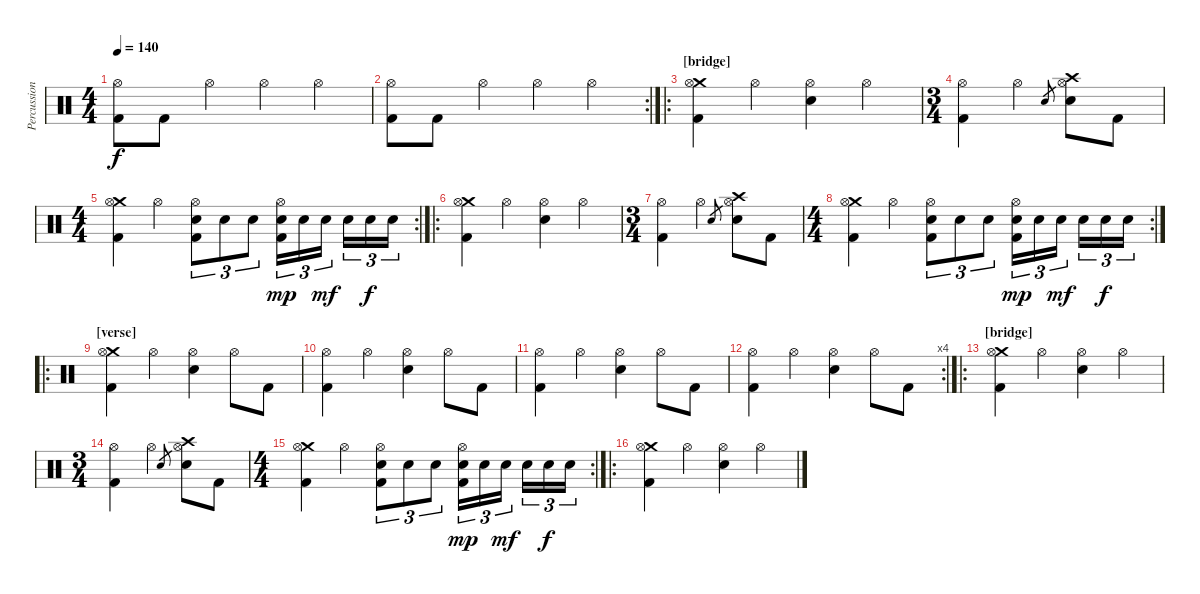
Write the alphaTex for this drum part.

\track ("Percussion" "Percussion") {instrument percussion}
\staff {score}
\articulation defaults
\ts (4 4)
\tempo 140
\clef neutral
\ks c
("Hi-Hat (open)" "Kick (hit) 2").8{dy f} "Kick (hit) 2".8 "Hi-Hat (open)".4 "Hi-Hat (open)".4 "Hi-Hat (open)".4 |
\rc 2
("Hi-Hat (open)" "Kick (hit) 2").8 "Kick (hit) 2".8 "Hi-Hat (open)".4 "Hi-Hat (open)".4 "Hi-Hat (open)".4 |
\ro
\section ("" "[bridge]")
("Crash medium (hit)" "Hi-Hat (open)" "Kick (hit) 2").4 "Hi-Hat (open)".4 ("Hi-Hat (open)" "Electric Snare (hit)").4 "Hi-Hat (open)".4 |
\ts (3 4)
("Hi-Hat (open)" "Kick (hit) 2").4 "Hi-Hat (open)".4 "Electric Snare (hit)".8{gr} ("Crash high (hit)" "Hi-Hat (open)" "Electric Snare (hit)").8 "Kick (hit) 2".8 |
\rc 2
\ts (4 4)
("Crash medium (hit)" "Hi-Hat (open)" "Kick (hit) 2").4 "Hi-Hat (open)".4 ("Hi-Hat (open)" "Electric Snare (hit)" "Kick (hit) 2").8{tu (3 2)} "Electric Snare (hit)".8{tu (3 2)} "Electric Snare (hit)".8{tu (3 2)} ("Hi-Hat (open)" "Electric Snare (hit)" "Kick (hit) 2").16{tu (3 2) dy mp} "Electric Snare (hit)".16{tu (3 2)} "Electric Snare (hit)".16{tu (3 2) dy mf} "Electric Snare (hit)".16{tu (3 2)} "Electric Snare (hit)".16{tu (3 2) dy f} "Electric Snare (hit)".16{tu (3 2)} |
\ro
("Crash medium (hit)" "Hi-Hat (open)" "Kick (hit) 2").4 "Hi-Hat (open)".4 ("Hi-Hat (open)" "Electric Snare (hit)").4 "Hi-Hat (open)".4 |
\ts (3 4)
("Hi-Hat (open)" "Kick (hit) 2").4 "Hi-Hat (open)".4 "Electric Snare (hit)".8{gr} ("Crash high (hit)" "Hi-Hat (open)" "Electric Snare (hit)").8 "Kick (hit) 2".8 |
\rc 2
\ts (4 4)
("Crash medium (hit)" "Hi-Hat (open)" "Kick (hit) 2").4 "Hi-Hat (open)".4 ("Hi-Hat (open)" "Electric Snare (hit)" "Kick (hit) 2").8{tu (3 2)} "Electric Snare (hit)".8{tu (3 2)} "Electric Snare (hit)".8{tu (3 2)} ("Hi-Hat (open)" "Electric Snare (hit)" "Kick (hit) 2").16{tu (3 2) dy mp} "Electric Snare (hit)".16{tu (3 2)} "Electric Snare (hit)".16{tu (3 2) dy mf} "Electric Snare (hit)".16{tu (3 2)} "Electric Snare (hit)".16{tu (3 2) dy f} "Electric Snare (hit)".16{tu (3 2)} |
\ro
\section ("" "[verse]")
("Crash medium (hit)" "Hi-Hat (open)" "Kick (hit) 2").4 "Hi-Hat (open)".4 ("Hi-Hat (open)" "Electric Snare (hit)").4 "Hi-Hat (open)".8 "Kick (hit) 2".8 |
("Hi-Hat (open)" "Kick (hit) 2").4 "Hi-Hat (open)".4 ("Hi-Hat (open)" "Electric Snare (hit)").4 "Hi-Hat (open)".8 "Kick (hit) 2".8 |
("Hi-Hat (open)" "Kick (hit) 2").4 "Hi-Hat (open)".4 ("Hi-Hat (open)" "Electric Snare (hit)").4 "Hi-Hat (open)".8 "Kick (hit) 2".8 |
\rc 4
("Hi-Hat (open)" "Kick (hit) 2").4 "Hi-Hat (open)".4 ("Hi-Hat (open)" "Electric Snare (hit)").4 "Hi-Hat (open)".8 "Kick (hit) 2".8 |
\ro
\section ("" "[bridge]")
("Crash medium (hit)" "Hi-Hat (open)" "Kick (hit) 2").4 "Hi-Hat (open)".4 ("Hi-Hat (open)" "Electric Snare (hit)").4 "Hi-Hat (open)".4 |
\ts (3 4)
("Hi-Hat (open)" "Kick (hit) 2").4 "Hi-Hat (open)".4 "Electric Snare (hit)".8{gr} ("Crash high (hit)" "Hi-Hat (open)" "Electric Snare (hit)").8 "Kick (hit) 2".8 |
\rc 2
\ts (4 4)
("Crash medium (hit)" "Hi-Hat (open)" "Kick (hit) 2").4 "Hi-Hat (open)".4 ("Hi-Hat (open)" "Electric Snare (hit)" "Kick (hit) 2").8{tu (3 2)} "Electric Snare (hit)".8{tu (3 2)} "Electric Snare (hit)".8{tu (3 2)} ("Hi-Hat (open)" "Electric Snare (hit)" "Kick (hit) 2").16{tu (3 2) dy mp} "Electric Snare (hit)".16{tu (3 2)} "Electric Snare (hit)".16{tu (3 2) dy mf} "Electric Snare (hit)".16{tu (3 2)} "Electric Snare (hit)".16{tu (3 2) dy f} "Electric Snare (hit)".16{tu (3 2)} |
\ro
("Crash medium (hit)" "Hi-Hat (open)" "Kick (hit) 2").4 "Hi-Hat (open)".4 ("Hi-Hat (open)" "Electric Snare (hit)").4 "Hi-Hat (open)".4
